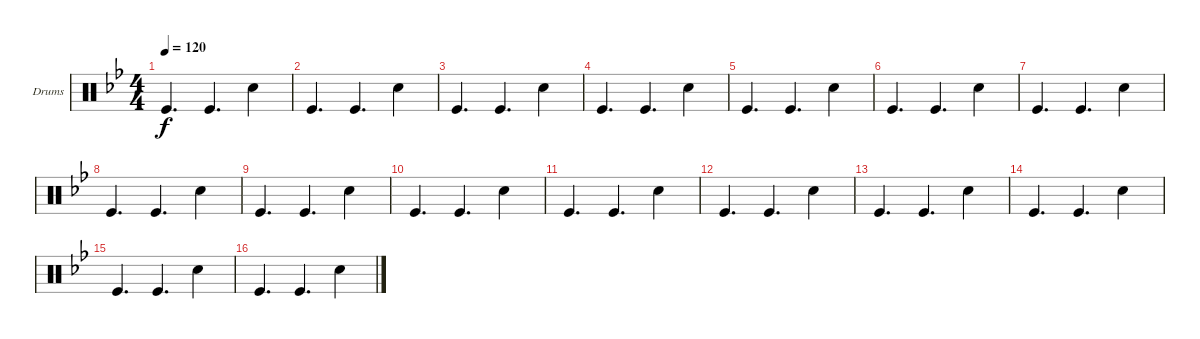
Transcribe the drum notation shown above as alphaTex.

\bracketExtendMode groupsimilarinstruments
\firstSystemTrackNameOrientation horizontal
\otherSystemsTrackNameOrientation horizontal
\track ("Drumkit" "Drums") {instrument percussion}
\staff {score}
\articulation defaults
\ts (4 4)
\tempo 120
\clef neutral
\ks bb "Kick (hit)".4{d dy f} "Kick (hit)".4{d} "Snare (hit) 2".4
|
"Kick (hit)".4{d} "Kick (hit)".4{d} "Snare (hit) 2".4 |
"Kick (hit)".4{d} "Kick (hit)".4{d} "Snare (hit) 2".4 |
"Kick (hit)".4{d} "Kick (hit)".4{d} "Snare (hit) 2".4 |
"Kick (hit)".4{d} "Kick (hit)".4{d} "Snare (hit) 2".4 |
"Kick (hit)".4{d} "Kick (hit)".4{d} "Snare (hit) 2".4 |
"Kick (hit)".4{d} "Kick (hit)".4{d} "Snare (hit) 2".4 |
"Kick (hit)".4{d} "Kick (hit)".4{d} "Snare (hit) 2".4 |
"Kick (hit)".4{d} "Kick (hit)".4{d} "Snare (hit) 2".4 |
"Kick (hit)".4{d} "Kick (hit)".4{d} "Snare (hit) 2".4 |
"Kick (hit)".4{d} "Kick (hit)".4{d} "Snare (hit) 2".4 |
"Kick (hit)".4{d} "Kick (hit)".4{d} "Snare (hit) 2".4 |
"Kick (hit)".4{d} "Kick (hit)".4{d} "Snare (hit) 2".4 |
"Kick (hit)".4{d} "Kick (hit)".4{d} "Snare (hit) 2".4 |
"Kick (hit)".4{d} "Kick (hit)".4{d} "Snare (hit) 2".4 |
"Kick (hit)".4{d} "Kick (hit)".4{d} "Snare (hit) 2".4
